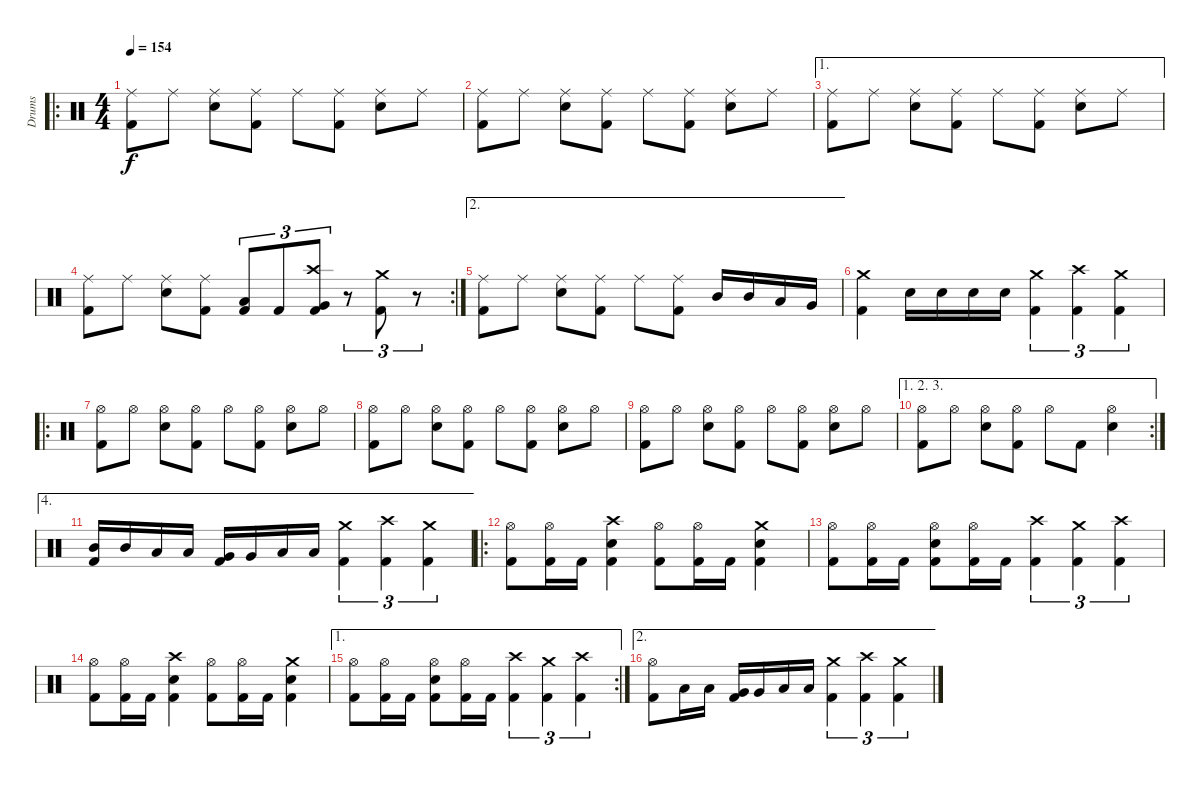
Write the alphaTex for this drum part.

\track ("Drums" "Drums") {instrument percussion}
\staff {score}
\articulation defaults
\ro
\ts (4 4)
\tempo 154
\clef neutral
\ks c
("Ride (middle)" "Kick (hit) 2").8{dy f} "Ride (middle)".8 ("Ride (middle)" "Snare (hit) 2").8 ("Ride (middle)" "Kick (hit) 2").8 "Ride (middle)".8 ("Ride (middle)" "Kick (hit) 2").8 ("Ride (middle)" "Snare (hit) 2").8 "Ride (middle)".8 |
("Ride (middle)" "Kick (hit) 2").8 "Ride (middle)".8 ("Ride (middle)" "Snare (hit) 2").8 ("Ride (middle)" "Kick (hit) 2").8 "Ride (middle)".8 ("Ride (middle)" "Kick (hit) 2").8 ("Ride (middle)" "Snare (hit) 2").8 "Ride (middle)".8 |
\ae 1
("Ride (middle)" "Kick (hit) 2").8 "Ride (middle)".8 ("Ride (middle)" "Snare (hit) 2").8 ("Ride (middle)" "Kick (hit) 2").8 "Ride (middle)".8 ("Ride (middle)" "Kick (hit) 2").8 ("Ride (middle)" "Snare (hit) 2").8 "Ride (middle)".8 |
\rc 2
("Ride (middle)" "Kick (hit) 2").8 "Ride (middle)".8 ("Ride (middle)" "Snare (hit) 2").8 ("Ride (middle)" "Kick (hit) 2").8 ("Low Tom (hit)" "Kick (hit) 2").8{tu (3 2)} "Kick (hit) 2".8{tu (3 2)} ("Crash high (hit)" "Very Low Tom (hit)" "Kick (hit) 2").8{tu (3 2)} r.8{tu (3 2)} ("Crash medium (hit)" "Kick (hit) 2").8{tu (3 2)} r.8{tu (3 2)} |
\ae 2
("Ride (middle)" "Kick (hit) 2").8 "Ride (middle)".8 ("Ride (middle)" "Snare (hit) 2").8 ("Ride (middle)" "Kick (hit) 2").8 "Ride (middle)".8 ("Ride (middle)" "Kick (hit) 2").8 "Mid Tom (hit)".16 "Mid Tom (hit)".16 "Low Tom (hit)".16 "Very Low Tom (hit)".16 |
("Crash medium (hit)" "Kick (hit) 2").4 "Snare (hit) 2".16 "Snare (hit) 2".16 "Snare (hit) 2".16 "Snare (hit) 2".16 ("Crash medium (hit)" "Kick (hit) 2").4{tu (3 2)} ("Crash high (hit)" "Kick (hit) 2").4{tu (3 2)} ("Crash medium (hit)" "Kick (hit) 2").4{tu (3 2)} |
\ro
("Hi-Hat (open)" "Kick (hit) 2").8 "Hi-Hat (open)".8 ("Hi-Hat (open)" "Snare (hit) 2").8 ("Hi-Hat (open)" "Kick (hit) 2").8 "Hi-Hat (open)".8 ("Hi-Hat (open)" "Kick (hit) 2").8 ("Hi-Hat (open)" "Snare (hit) 2").8 "Hi-Hat (open)".8 |
("Hi-Hat (open)" "Kick (hit) 2").8 "Hi-Hat (open)".8 ("Hi-Hat (open)" "Snare (hit) 2").8 ("Hi-Hat (open)" "Kick (hit) 2").8 "Hi-Hat (open)".8 ("Hi-Hat (open)" "Kick (hit) 2").8 ("Hi-Hat (open)" "Snare (hit) 2").8 "Hi-Hat (open)".8 |
("Hi-Hat (open)" "Kick (hit) 2").8 "Hi-Hat (open)".8 ("Hi-Hat (open)" "Snare (hit) 2").8 ("Hi-Hat (open)" "Kick (hit) 2").8 "Hi-Hat (open)".8 ("Hi-Hat (open)" "Kick (hit) 2").8 ("Hi-Hat (open)" "Snare (hit) 2").8 "Hi-Hat (open)".8 |
\ae (1 2 3)
\rc 2
("Hi-Hat (open)" "Kick (hit) 2").8 "Hi-Hat (open)".8 ("Hi-Hat (open)" "Snare (hit) 2").8 ("Hi-Hat (open)" "Kick (hit) 2").8 "Hi-Hat (open)".8 "Kick (hit) 2".8 ("Hi-Hat (open)" "Snare (hit) 2").4 |
\ae 4
("Mid Tom (hit)" "Kick (hit) 2").16 "Mid Tom (hit)".16 "Low Tom (hit)".16 "Low Tom (hit)".16 ("Very Low Tom (hit)" "Kick (hit) 2").16 "Very Low Tom (hit)".16 "Low Floor Tom (hit)".16 "Low Floor Tom (hit)".16 ("Crash medium (hit)" "Kick (hit) 2").4{tu (3 2)} ("Crash high (hit)" "Kick (hit) 2").4{tu (3 2)} ("Crash medium (hit)" "Kick (hit) 2").4{tu (3 2)} |
\ro
("Hi-Hat (open)" "Kick (hit) 2").8 ("Hi-Hat (open)" "Kick (hit) 2").16 "Kick (hit) 2".16 ("Crash high (hit)" "Snare (hit) 2" "Kick (hit) 2").4 ("Hi-Hat (open)" "Kick (hit) 2").8 ("Hi-Hat (open)" "Kick (hit) 2").16 "Kick (hit) 2".16 ("Crash medium (hit)" "Snare (hit) 2" "Kick (hit) 2").4 |
("Hi-Hat (open)" "Kick (hit) 2").8 ("Hi-Hat (open)" "Kick (hit) 2").16 "Kick (hit) 2".16 ("Hi-Hat (open)" "Snare (hit) 2" "Kick (hit) 2").8 ("Hi-Hat (open)" "Kick (hit) 2").16 "Kick (hit) 2".16 ("Crash high (hit)" "Kick (hit) 2").4{tu (3 2)} ("Crash medium (hit)" "Kick (hit) 2").4{tu (3 2)} ("Crash high (hit)" "Kick (hit) 2").4{tu (3 2)} |
("Hi-Hat (open)" "Kick (hit) 2").8 ("Hi-Hat (open)" "Kick (hit) 2").16 "Kick (hit) 2".16 ("Crash high (hit)" "Snare (hit) 2" "Kick (hit) 2").4 ("Hi-Hat (open)" "Kick (hit) 2").8 ("Hi-Hat (open)" "Kick (hit) 2").16 "Kick (hit) 2".16 ("Crash medium (hit)" "Snare (hit) 2" "Kick (hit) 2").4 |
\ae 1
\rc 2
("Hi-Hat (open)" "Kick (hit) 2").8 ("Hi-Hat (open)" "Kick (hit) 2").16 "Kick (hit) 2".16 ("Hi-Hat (open)" "Snare (hit) 2" "Kick (hit) 2").8 ("Hi-Hat (open)" "Kick (hit) 2").16 "Kick (hit) 2".16 ("Crash high (hit)" "Kick (hit) 2").4{tu (3 2)} ("Crash medium (hit)" "Kick (hit) 2").4{tu (3 2)} ("Crash high (hit)" "Kick (hit) 2").4{tu (3 2)} |
\ae 2
("Hi-Hat (open)" "Kick (hit) 2").8 "Low Tom (hit)".16 "Low Tom (hit)".16 ("Very Low Tom (hit)" "Kick (hit) 2").16 "Very Low Tom (hit)".16 "Low Floor Tom (hit)".16 "Low Floor Tom (hit)".16 ("Crash medium (hit)" "Kick (hit) 2").4{tu (3 2)} ("Crash high (hit)" "Kick (hit) 2").4{tu (3 2)} ("Crash medium (hit)" "Kick (hit) 2").4{tu (3 2)}
